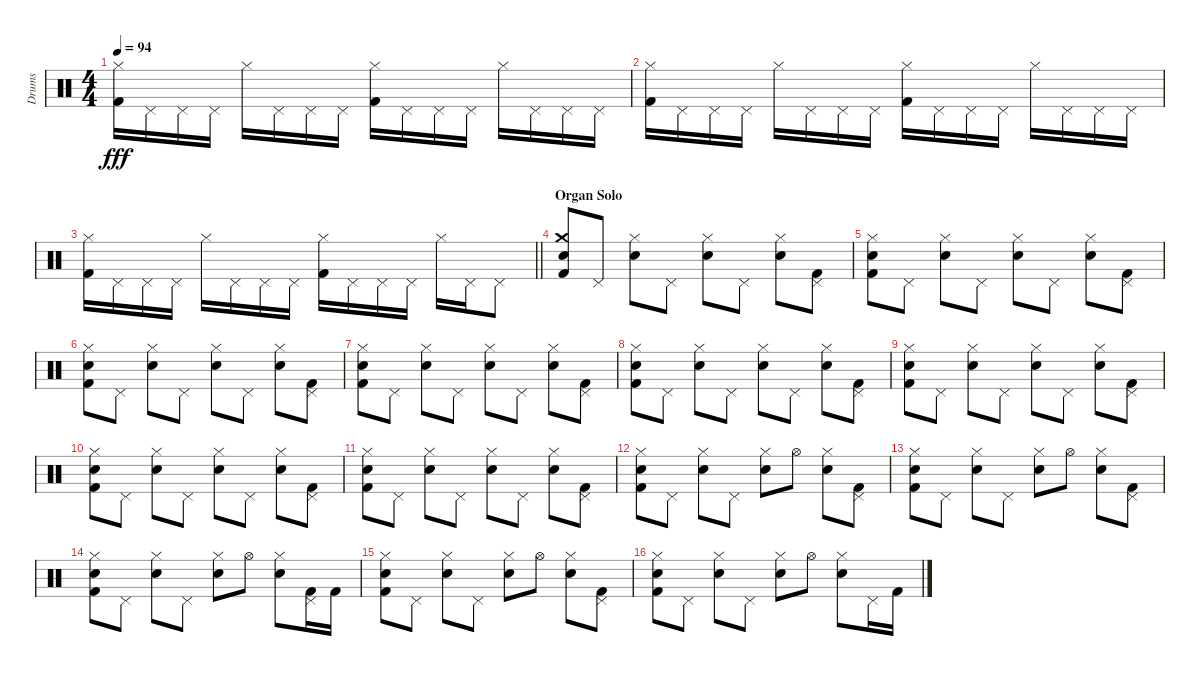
\track ("Drums" "Drums") {instrument percussion}
\staff {score}
\articulation defaults
\ts (4 4)
\tempo 94
\clef neutral
\ks c
("Hi-Hat (closed)" "Kick (hit) 2").16{dy fff} "Pedal Hi-Hat (hit)".16 "Pedal Hi-Hat (hit)".16 "Pedal Hi-Hat (hit)".16 "Hi-Hat (closed)".16 "Pedal Hi-Hat (hit)".16 "Pedal Hi-Hat (hit)".16 "Pedal Hi-Hat (hit)".16 ("Hi-Hat (closed)" "Kick (hit) 2").16 "Pedal Hi-Hat (hit)".16 "Pedal Hi-Hat (hit)".16 "Pedal Hi-Hat (hit)".16 "Hi-Hat (closed)".16 "Pedal Hi-Hat (hit)".16 "Pedal Hi-Hat (hit)".16 "Pedal Hi-Hat (hit)".16 |
("Hi-Hat (closed)" "Kick (hit) 2").16 "Pedal Hi-Hat (hit)".16 "Pedal Hi-Hat (hit)".16 "Pedal Hi-Hat (hit)".16 "Hi-Hat (closed)".16 "Pedal Hi-Hat (hit)".16 "Pedal Hi-Hat (hit)".16 "Pedal Hi-Hat (hit)".16 ("Hi-Hat (closed)" "Kick (hit) 2").16 "Pedal Hi-Hat (hit)".16 "Pedal Hi-Hat (hit)".16 "Pedal Hi-Hat (hit)".16 "Hi-Hat (closed)".16 "Pedal Hi-Hat (hit)".16 "Pedal Hi-Hat (hit)".16 "Pedal Hi-Hat (hit)".16 |
\barLineRight lightlight
("Hi-Hat (closed)" "Kick (hit) 2").16 "Pedal Hi-Hat (hit)".16 "Pedal Hi-Hat (hit)".16 "Pedal Hi-Hat (hit)".16 "Hi-Hat (closed)".16 "Pedal Hi-Hat (hit)".16 "Pedal Hi-Hat (hit)".16 "Pedal Hi-Hat (hit)".16 ("Hi-Hat (closed)" "Kick (hit) 2").16 "Pedal Hi-Hat (hit)".16 "Pedal Hi-Hat (hit)".16 "Pedal Hi-Hat (hit)".16 "Hi-Hat (closed)".16 "Pedal Hi-Hat (hit)".16 "Pedal Hi-Hat (hit)".8 |
\section ("" "Organ Solo")
("Crash medium (hit)" "Electric Snare (hit)" "Kick (hit) 2").8 "Pedal Hi-Hat (hit)".8 ("Hi-Hat (closed)" "Electric Snare (hit)").8 "Pedal Hi-Hat (hit)".8 ("Hi-Hat (closed)" "Electric Snare (hit)").8 "Pedal Hi-Hat (hit)".8 ("Hi-Hat (closed)" "Electric Snare (hit)").8 ("Pedal Hi-Hat (hit)" "Kick (hit) 2").8 |
("Hi-Hat (closed)" "Electric Snare (hit)" "Kick (hit) 2").8 "Pedal Hi-Hat (hit)".8 ("Hi-Hat (closed)" "Electric Snare (hit)").8 "Pedal Hi-Hat (hit)".8 ("Hi-Hat (closed)" "Electric Snare (hit)").8 "Pedal Hi-Hat (hit)".8 ("Hi-Hat (closed)" "Electric Snare (hit)").8 ("Pedal Hi-Hat (hit)" "Kick (hit) 2").8 |
("Hi-Hat (closed)" "Electric Snare (hit)" "Kick (hit) 2").8 "Pedal Hi-Hat (hit)".8 ("Hi-Hat (closed)" "Electric Snare (hit)").8 "Pedal Hi-Hat (hit)".8 ("Hi-Hat (closed)" "Electric Snare (hit)").8 "Pedal Hi-Hat (hit)".8 ("Hi-Hat (closed)" "Electric Snare (hit)").8 ("Pedal Hi-Hat (hit)" "Kick (hit) 2").8 |
("Hi-Hat (closed)" "Electric Snare (hit)" "Kick (hit) 2").8 "Pedal Hi-Hat (hit)".8 ("Hi-Hat (closed)" "Electric Snare (hit)").8 "Pedal Hi-Hat (hit)".8 ("Hi-Hat (closed)" "Electric Snare (hit)").8 "Pedal Hi-Hat (hit)".8 ("Hi-Hat (closed)" "Electric Snare (hit)").8 ("Pedal Hi-Hat (hit)" "Kick (hit) 2").8 |
("Hi-Hat (closed)" "Electric Snare (hit)" "Kick (hit) 2").8 "Pedal Hi-Hat (hit)".8 ("Hi-Hat (closed)" "Electric Snare (hit)").8 "Pedal Hi-Hat (hit)".8 ("Hi-Hat (closed)" "Electric Snare (hit)").8 "Pedal Hi-Hat (hit)".8 ("Hi-Hat (closed)" "Electric Snare (hit)").8 ("Pedal Hi-Hat (hit)" "Kick (hit) 2").8 |
("Hi-Hat (closed)" "Electric Snare (hit)" "Kick (hit) 2").8 "Pedal Hi-Hat (hit)".8 ("Hi-Hat (closed)" "Electric Snare (hit)").8 "Pedal Hi-Hat (hit)".8 ("Hi-Hat (closed)" "Electric Snare (hit)").8 "Pedal Hi-Hat (hit)".8 ("Hi-Hat (closed)" "Electric Snare (hit)").8 ("Pedal Hi-Hat (hit)" "Kick (hit) 2").8 |
("Hi-Hat (closed)" "Electric Snare (hit)" "Kick (hit) 2").8 "Pedal Hi-Hat (hit)".8 ("Hi-Hat (closed)" "Electric Snare (hit)").8 "Pedal Hi-Hat (hit)".8 ("Hi-Hat (closed)" "Electric Snare (hit)").8 "Pedal Hi-Hat (hit)".8 ("Hi-Hat (closed)" "Electric Snare (hit)").8 ("Pedal Hi-Hat (hit)" "Kick (hit) 2").8 |
("Hi-Hat (closed)" "Electric Snare (hit)" "Kick (hit) 2").8 "Pedal Hi-Hat (hit)".8 ("Hi-Hat (closed)" "Electric Snare (hit)").8 "Pedal Hi-Hat (hit)".8 ("Hi-Hat (closed)" "Electric Snare (hit)").8 "Pedal Hi-Hat (hit)".8 ("Hi-Hat (closed)" "Electric Snare (hit)").8 ("Pedal Hi-Hat (hit)" "Kick (hit) 2").8 |
("Hi-Hat (closed)" "Electric Snare (hit)" "Kick (hit) 2").8 "Pedal Hi-Hat (hit)".8 ("Hi-Hat (closed)" "Electric Snare (hit)").8 "Pedal Hi-Hat (hit)".8 ("Hi-Hat (closed)" "Electric Snare (hit)").8 "Hi-Hat (open)".8 ("Hi-Hat (closed)" "Electric Snare (hit)").8 ("Pedal Hi-Hat (hit)" "Kick (hit) 2").8 |
("Hi-Hat (closed)" "Electric Snare (hit)" "Kick (hit) 2").8 "Pedal Hi-Hat (hit)".8 ("Hi-Hat (closed)" "Electric Snare (hit)").8 "Pedal Hi-Hat (hit)".8 ("Hi-Hat (closed)" "Electric Snare (hit)").8 "Hi-Hat (open)".8 ("Hi-Hat (closed)" "Electric Snare (hit)").8 ("Pedal Hi-Hat (hit)" "Kick (hit) 2").8 |
("Hi-Hat (closed)" "Electric Snare (hit)" "Kick (hit) 2").8 "Pedal Hi-Hat (hit)".8 ("Hi-Hat (closed)" "Electric Snare (hit)").8 "Pedal Hi-Hat (hit)".8 ("Hi-Hat (closed)" "Electric Snare (hit)").8 "Hi-Hat (open)".8 ("Hi-Hat (closed)" "Electric Snare (hit)").8 ("Pedal Hi-Hat (hit)" "Kick (hit) 2").16 "Kick (hit) 2".16 |
("Hi-Hat (closed)" "Electric Snare (hit)" "Kick (hit) 2").8 "Pedal Hi-Hat (hit)".8 ("Hi-Hat (closed)" "Electric Snare (hit)").8 "Pedal Hi-Hat (hit)".8 ("Hi-Hat (closed)" "Electric Snare (hit)").8 "Hi-Hat (open)".8 ("Hi-Hat (closed)" "Electric Snare (hit)").8 ("Pedal Hi-Hat (hit)" "Kick (hit) 2").8 |
("Hi-Hat (closed)" "Electric Snare (hit)" "Kick (hit) 2").8 "Pedal Hi-Hat (hit)".8 ("Hi-Hat (closed)" "Electric Snare (hit)").8 "Pedal Hi-Hat (hit)".8 ("Hi-Hat (closed)" "Electric Snare (hit)").8 "Hi-Hat (open)".8 ("Hi-Hat (closed)" "Electric Snare (hit)").8 "Pedal Hi-Hat (hit)".16 "Kick (hit) 2".16
